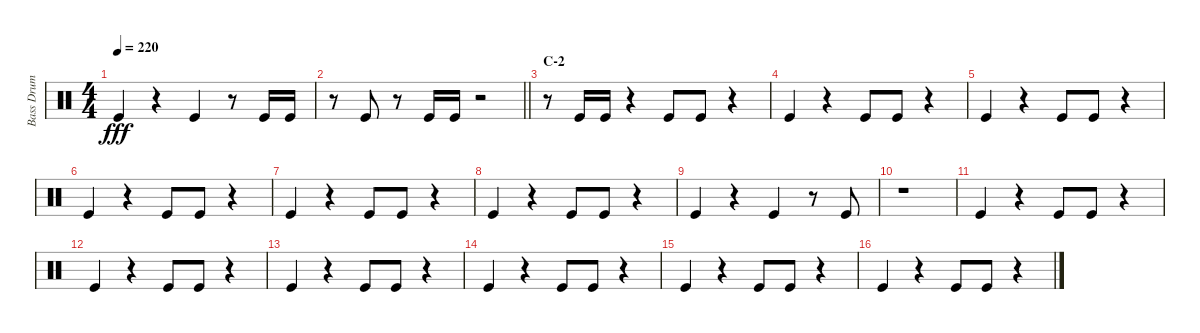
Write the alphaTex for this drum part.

\track ("Bass Drum" "Bass Drum") {instrument percussion}
\staff {score}
\articulation defaults
\ts (4 4)
\tempo 220
\clef neutral
\ks c "Kick (hit)".4{dy fff}
r.4 "Kick (hit)".4 r.8 "Kick (hit)".16 "Kick (hit)".16 |
\barLineRight lightlight
r.8 "Kick (hit)".8 r.8 "Kick (hit)".16 "Kick (hit)".16 r.2 |
\section ("" "C-2")
r.8 "Kick (hit)".16 "Kick (hit)".16 r.4 "Kick (hit)".8 "Kick (hit)".8 r.4 |
"Kick (hit)".4 r.4 "Kick (hit)".8 "Kick (hit)".8 r.4 |
"Kick (hit)".4 r.4 "Kick (hit)".8 "Kick (hit)".8 r.4 |
"Kick (hit)".4 r.4 "Kick (hit)".8 "Kick (hit)".8 r.4 |
"Kick (hit)".4 r.4 "Kick (hit)".8 "Kick (hit)".8 r.4 |
"Kick (hit)".4 r.4 "Kick (hit)".8 "Kick (hit)".8 r.4 |
"Kick (hit)".4 r.4 "Kick (hit)".4 r.8 "Kick (hit)".8 |
r.1 |
"Kick (hit)".4 r.4 "Kick (hit)".8 "Kick (hit)".8 r.4 |
"Kick (hit)".4 r.4 "Kick (hit)".8 "Kick (hit)".8 r.4 |
"Kick (hit)".4 r.4 "Kick (hit)".8 "Kick (hit)".8 r.4 |
"Kick (hit)".4 r.4 "Kick (hit)".8 "Kick (hit)".8 r.4 |
"Kick (hit)".4 r.4 "Kick (hit)".8 "Kick (hit)".8 r.4 |
"Kick (hit)".4 r.4 "Kick (hit)".8 "Kick (hit)".8 r.4
